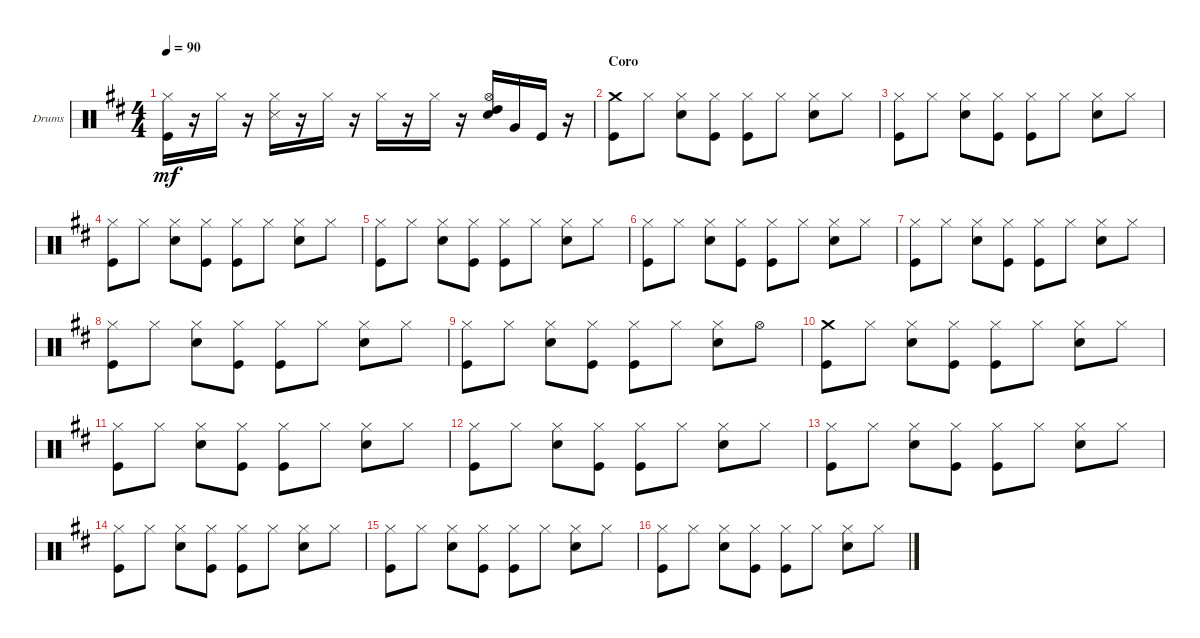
\defaultSystemsLayout 4
\bracketExtendMode groupsimilarinstruments
\firstSystemTrackNameOrientation horizontal
\otherSystemsTrackNameOrientation horizontal
\track ("Drumkit" "Drums") {multiBarRest instrument percussion}
\staff {score}
\articulation defaults
\ts (4 4)
\tempo 90
\clef neutral
\scale
0.333333
\ks d
("Kick (hit)" "Hi-Hat (closed)").16{dy mf} r.16 "Hi-Hat (closed)".16 r.16 ("Snare (side stick) 3" "Hi-Hat (closed)").16 r.16 "Hi-Hat (closed)".16 r.16 "Hi-Hat (closed)".16 r.16 "Hi-Hat (closed)".16 r.16 ("Snare (hit) 2" "Hi-Hat (open)" "High Tom (hit)").16 "Very Low Tom (hit)".16 "Kick (hit)".16 r.16 |
\section ("" "Coro")
\scale
0.333333 ("Kick (hit)" "Crash medium (hit)").8 "Hi-Hat (closed)".8 ("Hi-Hat (closed)" "Snare (hit) 2").8 ("Hi-Hat (closed)" "Kick (hit)").8 ("Hi-Hat (closed)" "Kick (hit)").8 "Hi-Hat (closed)".8 ("Hi-Hat (closed)" "Snare (hit) 2").8 "Hi-Hat (closed)".8 |
\scale
0.333333 ("Hi-Hat (closed)" "Kick (hit)").8 "Hi-Hat (closed)".8 ("Hi-Hat (closed)" "Snare (hit) 2").8 ("Hi-Hat (closed)" "Kick (hit)").8 ("Hi-Hat (closed)" "Kick (hit)").8 "Hi-Hat (closed)".8 ("Hi-Hat (closed)" "Snare (hit) 2").8 "Hi-Hat (closed)".8 |
\scale
0.333333 ("Hi-Hat (closed)" "Kick (hit)").8 "Hi-Hat (closed)".8 ("Hi-Hat (closed)" "Snare (hit) 2").8 ("Hi-Hat (closed)" "Kick (hit)").8 ("Hi-Hat (closed)" "Kick (hit)").8 "Hi-Hat (closed)".8 ("Hi-Hat (closed)" "Snare (hit) 2").8 "Hi-Hat (closed)".8 |
\scale
0.333333 ("Hi-Hat (closed)" "Kick (hit)").8 "Hi-Hat (closed)".8 ("Hi-Hat (closed)" "Snare (hit) 2").8 ("Hi-Hat (closed)" "Kick (hit)").8 ("Hi-Hat (closed)" "Kick (hit)").8 "Hi-Hat (closed)".8 ("Hi-Hat (closed)" "Snare (hit) 2").8 "Hi-Hat (closed)".8 |
\scale
0.333333 ("Hi-Hat (closed)" "Kick (hit)").8 "Hi-Hat (closed)".8 ("Hi-Hat (closed)" "Snare (hit) 2").8 ("Hi-Hat (closed)" "Kick (hit)").8 ("Hi-Hat (closed)" "Kick (hit)").8 "Hi-Hat (closed)".8 ("Hi-Hat (closed)" "Snare (hit) 2").8 "Hi-Hat (closed)".8 |
\scale
0.333333 ("Hi-Hat (closed)" "Kick (hit)").8 "Hi-Hat (closed)".8 ("Hi-Hat (closed)" "Snare (hit) 2").8 ("Hi-Hat (closed)" "Kick (hit)").8 ("Hi-Hat (closed)" "Kick (hit)").8 "Hi-Hat (closed)".8 ("Hi-Hat (closed)" "Snare (hit) 2").8 "Hi-Hat (closed)".8 |
\scale
0.333333 ("Hi-Hat (closed)" "Kick (hit)").8 "Hi-Hat (closed)".8 ("Hi-Hat (closed)" "Snare (hit) 2").8 ("Hi-Hat (closed)" "Kick (hit)").8 ("Hi-Hat (closed)" "Kick (hit)").8 "Hi-Hat (closed)".8 ("Hi-Hat (closed)" "Snare (hit) 2").8 "Hi-Hat (closed)".8 |
\scale
0.333333 ("Hi-Hat (closed)" "Kick (hit)").8 "Hi-Hat (closed)".8 ("Hi-Hat (closed)" "Snare (hit) 2").8 ("Hi-Hat (closed)" "Kick (hit)").8 ("Hi-Hat (closed)" "Kick (hit)").8 "Hi-Hat (closed)".8 ("Hi-Hat (closed)" "Snare (hit) 2").8 "Hi-Hat (open)".8 |
\scale
0.333333 ("Crash medium (hit)" "Kick (hit)").8 "Hi-Hat (closed)".8 ("Hi-Hat (closed)" "Snare (hit) 2").8 ("Hi-Hat (closed)" "Kick (hit)").8 ("Hi-Hat (closed)" "Kick (hit)").8 "Hi-Hat (closed)".8 ("Hi-Hat (closed)" "Snare (hit) 2").8 "Hi-Hat (closed)".8 |
\scale
0.333333 ("Hi-Hat (closed)" "Kick (hit)").8 "Hi-Hat (closed)".8 ("Hi-Hat (closed)" "Snare (hit) 2").8 ("Hi-Hat (closed)" "Kick (hit)").8 ("Hi-Hat (closed)" "Kick (hit)").8 "Hi-Hat (closed)".8 ("Hi-Hat (closed)" "Snare (hit) 2").8 "Hi-Hat (closed)".8 |
\scale
0.333333 ("Hi-Hat (closed)" "Kick (hit)").8 "Hi-Hat (closed)".8 ("Hi-Hat (closed)" "Snare (hit) 2").8 ("Hi-Hat (closed)" "Kick (hit)").8 ("Hi-Hat (closed)" "Kick (hit)").8 "Hi-Hat (closed)".8 ("Hi-Hat (closed)" "Snare (hit) 2").8 "Hi-Hat (closed)".8 |
\scale
0.333333 ("Hi-Hat (closed)" "Kick (hit)").8 "Hi-Hat (closed)".8 ("Hi-Hat (closed)" "Snare (hit) 2").8 ("Hi-Hat (closed)" "Kick (hit)").8 ("Hi-Hat (closed)" "Kick (hit)").8 "Hi-Hat (closed)".8 ("Hi-Hat (closed)" "Snare (hit) 2").8 "Hi-Hat (closed)".8 |
\scale
0.333333 ("Hi-Hat (closed)" "Kick (hit)").8 "Hi-Hat (closed)".8 ("Hi-Hat (closed)" "Snare (hit) 2").8 ("Hi-Hat (closed)" "Kick (hit)").8 ("Hi-Hat (closed)" "Kick (hit)").8 "Hi-Hat (closed)".8 ("Hi-Hat (closed)" "Snare (hit) 2").8 "Hi-Hat (closed)".8 |
\scale
0.333333 ("Hi-Hat (closed)" "Kick (hit)").8 "Hi-Hat (closed)".8 ("Hi-Hat (closed)" "Snare (hit) 2").8 ("Hi-Hat (closed)" "Kick (hit)").8 ("Hi-Hat (closed)" "Kick (hit)").8 "Hi-Hat (closed)".8 ("Hi-Hat (closed)" "Snare (hit) 2").8 "Hi-Hat (closed)".8 |
\scale
0.333333 ("Hi-Hat (closed)" "Kick (hit)").8 "Hi-Hat (closed)".8 ("Hi-Hat (closed)" "Snare (hit) 2").8 ("Hi-Hat (closed)" "Kick (hit)").8 ("Hi-Hat (closed)" "Kick (hit)").8 "Hi-Hat (closed)".8 ("Hi-Hat (closed)" "Snare (hit) 2").8 "Hi-Hat (closed)".8
